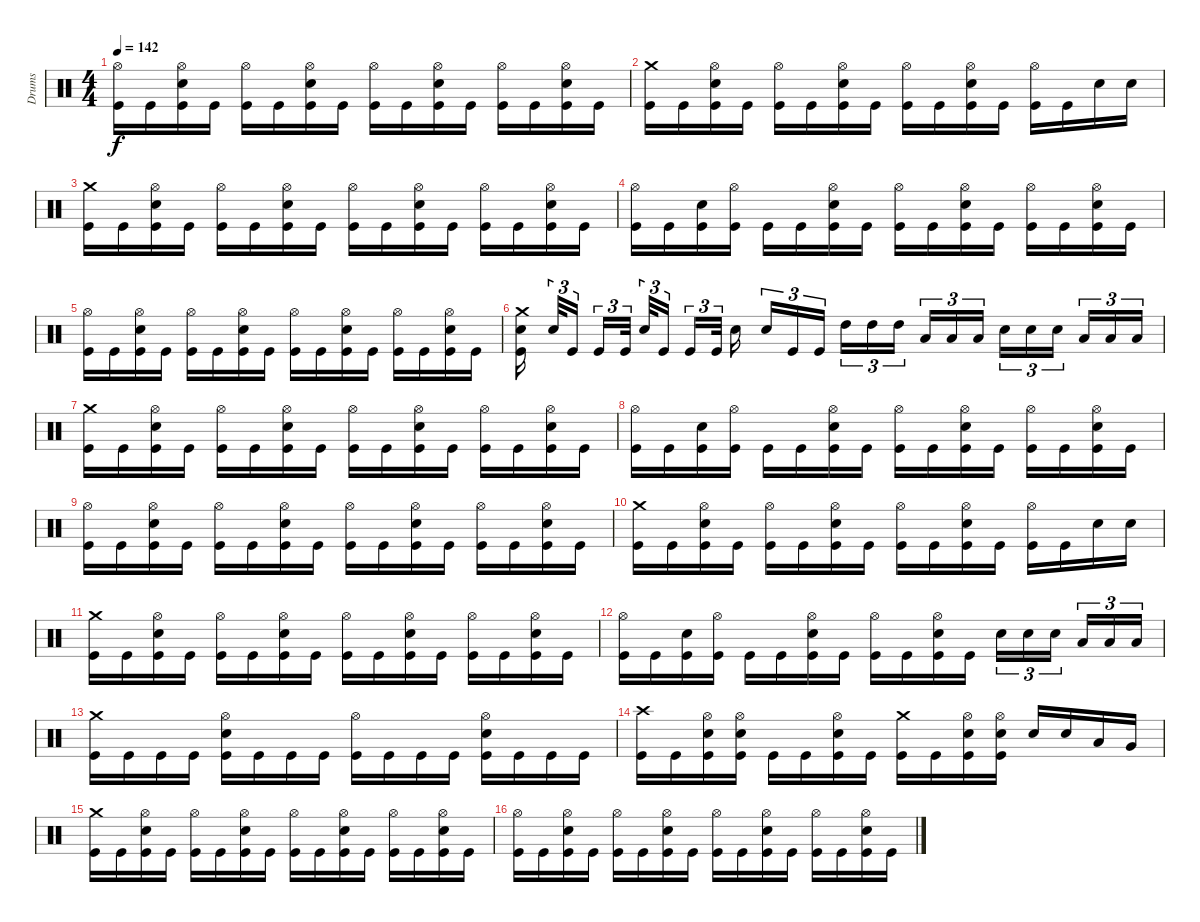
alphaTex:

\track ("Drums" "Drums") {instrument percussion}
\staff {score}
\articulation defaults
\ts (4 4)
\tempo 142
\clef neutral
\ks c
("Hi-Hat (open)" "Kick (hit)").16{dy f} "Kick (hit)".16 ("Electric Snare (hit)" "Hi-Hat (open)" "Kick (hit)").16 "Kick (hit)".16 ("Hi-Hat (open)" "Kick (hit)").16 "Kick (hit)".16 ("Electric Snare (hit)" "Hi-Hat (open)" "Kick (hit)").16 "Kick (hit)".16 ("Hi-Hat (open)" "Kick (hit)").16 "Kick (hit)".16 ("Electric Snare (hit)" "Hi-Hat (open)" "Kick (hit)").16 "Kick (hit)".16 ("Hi-Hat (open)" "Kick (hit)").16 "Kick (hit)".16 ("Electric Snare (hit)" "Hi-Hat (open)" "Kick (hit)").16 "Kick (hit)".16 |
("Crash medium (hit)" "Kick (hit)").16 "Kick (hit)".16 ("Electric Snare (hit)" "Hi-Hat (open)" "Kick (hit)").16 "Kick (hit)".16 ("Hi-Hat (open)" "Kick (hit)").16 "Kick (hit)".16 ("Electric Snare (hit)" "Hi-Hat (open)" "Kick (hit)").16 "Kick (hit)".16 ("Hi-Hat (open)" "Kick (hit)").16 "Kick (hit)".16 ("Electric Snare (hit)" "Hi-Hat (open)" "Kick (hit)").16 "Kick (hit)".16 ("Hi-Hat (open)" "Kick (hit)").16 "Kick (hit)".16 "Electric Snare (hit)".16 "Electric Snare (hit)".16 |
("Crash medium (hit)" "Kick (hit)").16 "Kick (hit)".16 ("Electric Snare (hit)" "Hi-Hat (open)" "Kick (hit)").16 "Kick (hit)".16 ("Hi-Hat (open)" "Kick (hit)").16 "Kick (hit)".16 ("Electric Snare (hit)" "Hi-Hat (open)" "Kick (hit)").16 "Kick (hit)".16 ("Hi-Hat (open)" "Kick (hit)").16 "Kick (hit)".16 ("Electric Snare (hit)" "Hi-Hat (open)" "Kick (hit)").16 "Kick (hit)".16 ("Hi-Hat (open)" "Kick (hit)").16 "Kick (hit)".16 ("Electric Snare (hit)" "Hi-Hat (open)" "Kick (hit)").16 "Kick (hit)".16 |
("Hi-Hat (open)" "Kick (hit)").16 "Kick (hit)".16 ("Electric Snare (hit)" "Kick (hit)").16 ("Hi-Hat (open)" "Kick (hit)").16 "Kick (hit)".16 "Kick (hit)".16 ("Electric Snare (hit)" "Hi-Hat (open)" "Kick (hit)").16 "Kick (hit)".16 ("Hi-Hat (open)" "Kick (hit)").16 "Kick (hit)".16 ("Electric Snare (hit)" "Hi-Hat (open)" "Kick (hit)").16 "Kick (hit)".16 ("Hi-Hat (open)" "Kick (hit)").16 "Kick (hit)".16 ("Electric Snare (hit)" "Hi-Hat (open)" "Kick (hit)").16 "Kick (hit)".16 |
("Hi-Hat (open)" "Kick (hit)").16 "Kick (hit)".16 ("Electric Snare (hit)" "Hi-Hat (open)" "Kick (hit)").16 "Kick (hit)".16 ("Hi-Hat (open)" "Kick (hit)").16 "Kick (hit)".16 ("Electric Snare (hit)" "Hi-Hat (open)" "Kick (hit)").16 "Kick (hit)".16 ("Hi-Hat (open)" "Kick (hit)").16 "Kick (hit)".16 ("Electric Snare (hit)" "Hi-Hat (open)" "Kick (hit)").16 "Kick (hit)".16 ("Hi-Hat (open)" "Kick (hit)").16 "Kick (hit)".16 ("Electric Snare (hit)" "Hi-Hat (open)" "Kick (hit)").16 "Kick (hit)".16 |
("Kick (hit)" "Crash medium (hit)" "Electric Snare (hit)").16 "Electric Snare (hit)".32{tu (3 2)} "Kick (hit)".16{tu (3 2)} "Kick (hit)".16{tu (3 2)} "Kick (hit)".32{tu (3 2)} "Electric Snare (hit)".32{tu (3 2)} "Kick (hit)".16{tu (3 2)} "Kick (hit)".16{tu (3 2)} "Kick (hit)".32{tu (3 2)} "Electric Snare (hit)".16 "Electric Snare (hit)".16{tu (3 2)} "Kick (hit)".16{tu (3 2)} "Kick (hit)".16{tu (3 2)} "High Tom (hit)".16{tu (3 2)} "High Tom (hit)".16{tu (3 2)} "High Tom (hit)".16{tu (3 2)} "Low Tom (hit)".16{tu (3 2)} "Low Tom (hit)".16{tu (3 2)} "Low Tom (hit)".16{tu (3 2)} "Electric Snare (hit)".16{tu (3 2)} "Electric Snare (hit)".16{tu (3 2)} "Electric Snare (hit)".16{tu (3 2)} "Low Tom (hit)".16{tu (3 2)} "Low Tom (hit)".16{tu (3 2)} "Low Tom (hit)".16{tu (3 2)} |
("Crash medium (hit)" "Kick (hit)").16 "Kick (hit)".16 ("Electric Snare (hit)" "Hi-Hat (open)" "Kick (hit)").16 "Kick (hit)".16 ("Hi-Hat (open)" "Kick (hit)").16 "Kick (hit)".16 ("Electric Snare (hit)" "Hi-Hat (open)" "Kick (hit)").16 "Kick (hit)".16 ("Hi-Hat (open)" "Kick (hit)").16 "Kick (hit)".16 ("Electric Snare (hit)" "Hi-Hat (open)" "Kick (hit)").16 "Kick (hit)".16 ("Hi-Hat (open)" "Kick (hit)").16 "Kick (hit)".16 ("Electric Snare (hit)" "Hi-Hat (open)" "Kick (hit)").16 "Kick (hit)".16 |
("Hi-Hat (open)" "Kick (hit)").16 "Kick (hit)".16 ("Electric Snare (hit)" "Kick (hit)").16 ("Hi-Hat (open)" "Kick (hit)").16 "Kick (hit)".16 "Kick (hit)".16 ("Electric Snare (hit)" "Hi-Hat (open)" "Kick (hit)").16 "Kick (hit)".16 ("Hi-Hat (open)" "Kick (hit)").16 "Kick (hit)".16 ("Electric Snare (hit)" "Hi-Hat (open)" "Kick (hit)").16 "Kick (hit)".16 ("Hi-Hat (open)" "Kick (hit)").16 "Kick (hit)".16 ("Electric Snare (hit)" "Hi-Hat (open)" "Kick (hit)").16 "Kick (hit)".16 |
("Hi-Hat (open)" "Kick (hit)").16 "Kick (hit)".16 ("Electric Snare (hit)" "Hi-Hat (open)" "Kick (hit)").16 "Kick (hit)".16 ("Hi-Hat (open)" "Kick (hit)").16 "Kick (hit)".16 ("Electric Snare (hit)" "Hi-Hat (open)" "Kick (hit)").16 "Kick (hit)".16 ("Hi-Hat (open)" "Kick (hit)").16 "Kick (hit)".16 ("Electric Snare (hit)" "Hi-Hat (open)" "Kick (hit)").16 "Kick (hit)".16 ("Hi-Hat (open)" "Kick (hit)").16 "Kick (hit)".16 ("Electric Snare (hit)" "Hi-Hat (open)" "Kick (hit)").16 "Kick (hit)".16 |
("Crash medium (hit)" "Kick (hit)").16 "Kick (hit)".16 ("Electric Snare (hit)" "Hi-Hat (open)" "Kick (hit)").16 "Kick (hit)".16 ("Hi-Hat (open)" "Kick (hit)").16 "Kick (hit)".16 ("Electric Snare (hit)" "Hi-Hat (open)" "Kick (hit)").16 "Kick (hit)".16 ("Hi-Hat (open)" "Kick (hit)").16 "Kick (hit)".16 ("Electric Snare (hit)" "Hi-Hat (open)" "Kick (hit)").16 "Kick (hit)".16 ("Hi-Hat (open)" "Kick (hit)").16 "Kick (hit)".16 "Electric Snare (hit)".16 "Electric Snare (hit)".16 |
("Crash medium (hit)" "Kick (hit)").16 "Kick (hit)".16 ("Electric Snare (hit)" "Hi-Hat (open)" "Kick (hit)").16 "Kick (hit)".16 ("Hi-Hat (open)" "Kick (hit)").16 "Kick (hit)".16 ("Electric Snare (hit)" "Hi-Hat (open)" "Kick (hit)").16 "Kick (hit)".16 ("Hi-Hat (open)" "Kick (hit)").16 "Kick (hit)".16 ("Electric Snare (hit)" "Hi-Hat (open)" "Kick (hit)").16 "Kick (hit)".16 ("Hi-Hat (open)" "Kick (hit)").16 "Kick (hit)".16 ("Electric Snare (hit)" "Hi-Hat (open)" "Kick (hit)").16 "Kick (hit)".16 |
("Hi-Hat (open)" "Kick (hit)").16 "Kick (hit)".16 ("Electric Snare (hit)" "Kick (hit)").16 ("Hi-Hat (open)" "Kick (hit)").16 "Kick (hit)".16 "Kick (hit)".16 ("Electric Snare (hit)" "Hi-Hat (open)" "Kick (hit)").16 "Kick (hit)".16 ("Hi-Hat (open)" "Kick (hit)").16 "Kick (hit)".16 ("Electric Snare (hit)" "Hi-Hat (open)" "Kick (hit)").16 "Kick (hit)".16 "Electric Snare (hit)".16{tu (3 2)} "Electric Snare (hit)".16{tu (3 2)} "Electric Snare (hit)".16{tu (3 2)} "Low Tom (hit)".16{tu (3 2)} "Low Tom (hit)".16{tu (3 2)} "Low Tom (hit)".16{tu (3 2)} |
("Crash medium (hit)" "Kick (hit)").16 "Kick (hit)".16 "Kick (hit)".16 "Kick (hit)".16 ("Electric Snare (hit)" "Hi-Hat (open)" "Kick (hit)").16 "Kick (hit)".16 "Kick (hit)".16 "Kick (hit)".16 ("Hi-Hat (open)" "Kick (hit)").16 "Kick (hit)".16 "Kick (hit)".16 "Kick (hit)".16 ("Electric Snare (hit)" "Hi-Hat (open)" "Kick (hit)").16 "Kick (hit)".16 "Kick (hit)".16 "Kick (hit)".16 |
("Crash high (hit)" "Kick (hit)").16 "Kick (hit)".16 ("Hi-Hat (open)" "Electric Snare (hit)" "Kick (hit)").16 ("Hi-Hat (open)" "Electric Snare (hit)" "Kick (hit)").16 "Kick (hit)".16 "Kick (hit)".16 ("Hi-Hat (open)" "Electric Snare (hit)" "Kick (hit)").16 "Kick (hit)".16 ("Crash medium (hit)" "Kick (hit)").16 "Kick (hit)".16 ("Hi-Hat (open)" "Electric Snare (hit)" "Kick (hit)").16 ("Hi-Hat (open)" "Electric Snare (hit)" "Kick (hit)").16 "Electric Snare (hit)".16 "Electric Snare (hit)".16 "Low Tom (hit)".16 "Very Low Tom (hit)".16 |
("Crash medium (hit)" "Kick (hit)").16 "Kick (hit)".16 ("Electric Snare (hit)" "Hi-Hat (open)" "Kick (hit)").16 "Kick (hit)".16 ("Hi-Hat (open)" "Kick (hit)").16 "Kick (hit)".16 ("Electric Snare (hit)" "Hi-Hat (open)" "Kick (hit)").16 "Kick (hit)".16 ("Hi-Hat (open)" "Kick (hit)").16 "Kick (hit)".16 ("Electric Snare (hit)" "Hi-Hat (open)" "Kick (hit)").16 "Kick (hit)".16 ("Hi-Hat (open)" "Kick (hit)").16 "Kick (hit)".16 ("Electric Snare (hit)" "Hi-Hat (open)" "Kick (hit)").16 "Kick (hit)".16 |
("Hi-Hat (open)" "Kick (hit)").16 "Kick (hit)".16 ("Electric Snare (hit)" "Hi-Hat (open)" "Kick (hit)").16 "Kick (hit)".16 ("Hi-Hat (open)" "Kick (hit)").16 "Kick (hit)".16 ("Electric Snare (hit)" "Hi-Hat (open)" "Kick (hit)").16 "Kick (hit)".16 ("Hi-Hat (open)" "Kick (hit)").16 "Kick (hit)".16 ("Electric Snare (hit)" "Hi-Hat (open)" "Kick (hit)").16 "Kick (hit)".16 ("Hi-Hat (open)" "Kick (hit)").16 "Kick (hit)".16 ("Electric Snare (hit)" "Hi-Hat (open)" "Kick (hit)").16 "Kick (hit)".16
